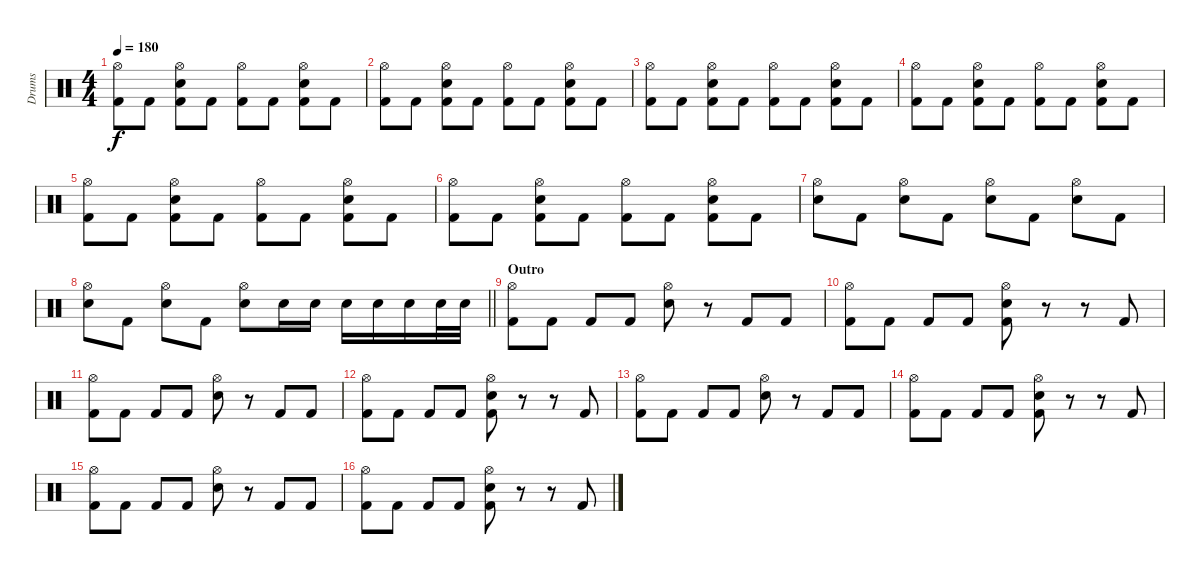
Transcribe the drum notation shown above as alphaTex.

\track ("Drums" "Drums") {instrument percussion}
\staff {score}
\articulation defaults
\ts (4 4)
\tempo 180
\clef neutral
\ks c
("Hi-Hat (open)" "Kick (hit) 2").8{dy f} "Kick (hit) 2".8 ("Hi-Hat (open)" "Electric Snare (hit)" "Kick (hit) 2").8 "Kick (hit) 2".8 ("Hi-Hat (open)" "Kick (hit) 2").8 "Kick (hit) 2".8 ("Hi-Hat (open)" "Electric Snare (hit)" "Kick (hit) 2").8 "Kick (hit) 2".8 |
("Hi-Hat (open)" "Kick (hit) 2").8 "Kick (hit) 2".8 ("Hi-Hat (open)" "Electric Snare (hit)" "Kick (hit) 2").8 "Kick (hit) 2".8 ("Hi-Hat (open)" "Kick (hit) 2").8 "Kick (hit) 2".8 ("Hi-Hat (open)" "Electric Snare (hit)" "Kick (hit) 2").8 "Kick (hit) 2".8 |
("Hi-Hat (open)" "Kick (hit) 2").8 "Kick (hit) 2".8 ("Hi-Hat (open)" "Electric Snare (hit)" "Kick (hit) 2").8 "Kick (hit) 2".8 ("Hi-Hat (open)" "Kick (hit) 2").8 "Kick (hit) 2".8 ("Hi-Hat (open)" "Electric Snare (hit)" "Kick (hit) 2").8 "Kick (hit) 2".8 |
("Hi-Hat (open)" "Kick (hit) 2").8 "Kick (hit) 2".8 ("Hi-Hat (open)" "Electric Snare (hit)" "Kick (hit) 2").8 "Kick (hit) 2".8 ("Hi-Hat (open)" "Kick (hit) 2").8 "Kick (hit) 2".8 ("Hi-Hat (open)" "Electric Snare (hit)" "Kick (hit) 2").8 "Kick (hit) 2".8 |
("Hi-Hat (open)" "Kick (hit) 2").8 "Kick (hit) 2".8 ("Hi-Hat (open)" "Electric Snare (hit)" "Kick (hit) 2").8 "Kick (hit) 2".8 ("Hi-Hat (open)" "Kick (hit) 2").8 "Kick (hit) 2".8 ("Hi-Hat (open)" "Electric Snare (hit)" "Kick (hit) 2").8 "Kick (hit) 2".8 |
("Hi-Hat (open)" "Kick (hit) 2").8 "Kick (hit) 2".8 ("Hi-Hat (open)" "Electric Snare (hit)" "Kick (hit) 2").8 "Kick (hit) 2".8 ("Hi-Hat (open)" "Kick (hit) 2").8 "Kick (hit) 2".8 ("Hi-Hat (open)" "Electric Snare (hit)" "Kick (hit) 2").8 "Kick (hit) 2".8 |
("Hi-Hat (open)" "Electric Snare (hit)").8 "Kick (hit) 2".8 ("Hi-Hat (open)" "Electric Snare (hit)").8 "Kick (hit) 2".8 ("Hi-Hat (open)" "Electric Snare (hit)").8 "Kick (hit) 2".8 ("Hi-Hat (open)" "Electric Snare (hit)").8 "Kick (hit) 2".8 |
\barLineRight lightlight
("Hi-Hat (open)" "Electric Snare (hit)").8 "Kick (hit) 2".8 ("Hi-Hat (open)" "Electric Snare (hit)").8 "Kick (hit) 2".8 ("Hi-Hat (open)" "Electric Snare (hit)").8 "Electric Snare (hit)".16 "Electric Snare (hit)".16 "Electric Snare (hit)".16 "Electric Snare (hit)".16 "Electric Snare (hit)".16 "Electric Snare (hit)".32 "Electric Snare (hit)".32 |
\section ("" "Outro")
("Hi-Hat (open)" "Kick (hit) 2").8 "Kick (hit) 2".8 "Kick (hit) 2".8 "Kick (hit) 2".8 ("Hi-Hat (open)" "Electric Snare (hit)").8 r.8 "Kick (hit) 2".8 "Kick (hit) 2".8 |
("Hi-Hat (open)" "Kick (hit) 2").8 "Kick (hit) 2".8 "Kick (hit) 2".8 "Kick (hit) 2".8 ("Hi-Hat (open)" "Electric Snare (hit)" "Kick (hit) 2").8 r.8 r.8 "Kick (hit) 2".8 |
("Hi-Hat (open)" "Kick (hit) 2").8 "Kick (hit) 2".8 "Kick (hit) 2".8 "Kick (hit) 2".8 ("Hi-Hat (open)" "Electric Snare (hit)").8 r.8 "Kick (hit) 2".8 "Kick (hit) 2".8 |
("Hi-Hat (open)" "Kick (hit) 2").8 "Kick (hit) 2".8 "Kick (hit) 2".8 "Kick (hit) 2".8 ("Hi-Hat (open)" "Electric Snare (hit)" "Kick (hit) 2").8 r.8 r.8 "Kick (hit) 2".8 |
("Hi-Hat (open)" "Kick (hit) 2").8 "Kick (hit) 2".8 "Kick (hit) 2".8 "Kick (hit) 2".8 ("Hi-Hat (open)" "Electric Snare (hit)").8 r.8 "Kick (hit) 2".8 "Kick (hit) 2".8 |
("Hi-Hat (open)" "Kick (hit) 2").8 "Kick (hit) 2".8 "Kick (hit) 2".8 "Kick (hit) 2".8 ("Hi-Hat (open)" "Electric Snare (hit)" "Kick (hit) 2").8 r.8 r.8 "Kick (hit) 2".8 |
("Hi-Hat (open)" "Kick (hit) 2").8 "Kick (hit) 2".8 "Kick (hit) 2".8 "Kick (hit) 2".8 ("Hi-Hat (open)" "Electric Snare (hit)").8 r.8 "Kick (hit) 2".8 "Kick (hit) 2".8 |
("Hi-Hat (open)" "Kick (hit) 2").8 "Kick (hit) 2".8 "Kick (hit) 2".8 "Kick (hit) 2".8 ("Hi-Hat (open)" "Electric Snare (hit)" "Kick (hit) 2").8 r.8 r.8 "Kick (hit) 2".8
